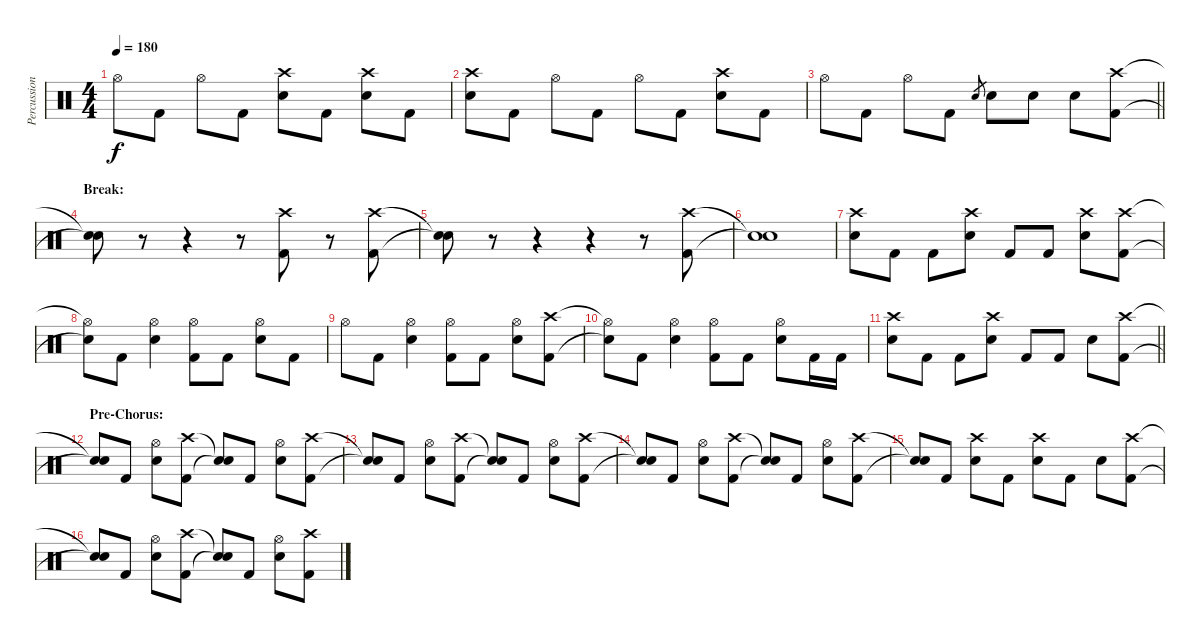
\track ("Percussion" "Percussion") {instrument percussion}
\staff {score}
\articulation defaults
\ts (4 4)
\tempo 180
\clef neutral
\ks c "Hi-Hat (open)".8{dy f} "Kick (hit) 2".8 "Hi-Hat (open)".8 "Kick (hit) 2".8
("Crash high (hit)" "Electric Snare (hit)").8 "Kick (hit) 2".8 ("Crash high (hit)" "Electric Snare (hit)").8 "Kick (hit) 2".8 |
("Crash high (hit)" "Electric Snare (hit)").8 "Kick (hit) 2".8 "Hi-Hat (open)".8 "Kick (hit) 2".8 "Hi-Hat (open)".8 "Kick (hit) 2".8 ("Crash high (hit)" "Electric Snare (hit)").8 "Kick (hit) 2".8 |
\barLineRight lightlight "Hi-Hat (open)".8 "Kick (hit) 2".8 "Hi-Hat (open)".8 "Kick (hit) 2".8 "Electric Snare (hit)".8{gr} "Electric Snare (hit)".8 "Electric Snare (hit)".8 "Electric Snare (hit)".8
("Crash high (hit)" "Kick (hit) 2").8 |
\section ("" "Break:")
("Snare (hit)"{t} "Snare (hit)"{t}).8 r.8 r.4 r.8 ("Crash high (hit)" "Kick (hit) 2").8 r.8 ("Crash high (hit)" "Kick (hit) 2").8 |
("Snare (hit)"{t} "Snare (hit)"{t}).8 r.8 r.4 r.4 r.8 ("Crash high (hit)" "Kick (hit) 2").8 |
("Snare (hit)"{t} "Snare (hit)"{t}).1 |
("Crash high (hit)" "Electric Snare (hit)").8 "Kick (hit) 2".8 "Kick (hit) 2".8 ("Crash high (hit)" "Electric Snare (hit)").8 "Kick (hit) 2".8 "Kick (hit) 2".8 ("Crash high (hit)" "Electric Snare (hit)").8 ("Crash high (hit)" "Kick (hit) 2").8 |
("Hi-Hat (open)"{t} "Snare (hit)"{t}).8 "Kick (hit) 2".8 ("Hi-Hat (open)" "Electric Snare (hit)").4 ("Hi-Hat (open)" "Kick (hit) 2").8 "Kick (hit) 2".8 ("Hi-Hat (open)" "Electric Snare (hit)").8 "Kick (hit) 2".8 |
"Hi-Hat (open)".8 "Kick (hit) 2".8 ("Hi-Hat (open)" "Electric Snare (hit)").4 ("Hi-Hat (open)" "Kick (hit) 2").8 "Kick (hit) 2".8 ("Hi-Hat (open)" "Electric Snare (hit)").8 ("Crash high (hit)" "Kick (hit) 2").8 |
("Hi-Hat (open)"{t} "Snare (hit)"{t}).8 "Kick (hit) 2".8 ("Hi-Hat (open)" "Electric Snare (hit)").4 ("Hi-Hat (open)" "Kick (hit) 2").8 "Kick (hit) 2".8 ("Hi-Hat (open)" "Electric Snare (hit)").8 "Kick (hit) 2".16 "Kick (hit) 2".16 |
\barLineRight lightlight
("Crash high (hit)" "Electric Snare (hit)").8 "Kick (hit) 2".8 "Kick (hit) 2".8 ("Crash high (hit)" "Electric Snare (hit)").8 "Kick (hit) 2".8 "Kick (hit) 2".8 "Electric Snare (hit)".8 ("Crash high (hit)" "Kick (hit) 2").8 |
\section ("" "Pre-Chorus:")
("Snare (hit)"{t} "Snare (hit)"{t}).8 "Kick (hit) 2".8 ("Hi-Hat (open)" "Electric Snare (hit)").8 ("Crash high (hit)" "Kick (hit) 2").8 ("Snare (hit)"{t} "Snare (hit)"{t}).8 "Kick (hit) 2".8 ("Hi-Hat (open)" "Electric Snare (hit)").8 ("Crash high (hit)" "Kick (hit) 2").8 |
("Snare (hit)"{t} "Snare (hit)"{t}).8 "Kick (hit) 2".8 ("Hi-Hat (open)" "Electric Snare (hit)").8 ("Crash high (hit)" "Kick (hit) 2").8 ("Snare (hit)"{t} "Snare (hit)"{t}).8 "Kick (hit) 2".8 ("Hi-Hat (open)" "Electric Snare (hit)").8 ("Crash high (hit)" "Kick (hit) 2").8 |
("Snare (hit)"{t} "Snare (hit)"{t}).8 "Kick (hit) 2".8 ("Hi-Hat (open)" "Electric Snare (hit)").8 ("Crash high (hit)" "Kick (hit) 2").8 ("Snare (hit)"{t} "Snare (hit)"{t}).8 "Kick (hit) 2".8 ("Hi-Hat (open)" "Electric Snare (hit)").8 ("Crash high (hit)" "Kick (hit) 2").8 |
("Snare (hit)"{t} "Snare (hit)"{t}).8 "Kick (hit) 2".8 ("Crash high (hit)" "Electric Snare (hit)").8 "Kick (hit) 2".8 ("Crash high (hit)" "Electric Snare (hit)").8 "Kick (hit) 2".8 "Electric Snare (hit)".8 ("Crash high (hit)" "Kick (hit) 2").8 |
("Snare (hit)"{t} "Snare (hit)"{t}).8 "Kick (hit) 2".8 ("Hi-Hat (open)" "Electric Snare (hit)").8 ("Crash high (hit)" "Kick (hit) 2").8 ("Snare (hit)"{t} "Snare (hit)"{t}).8 "Kick (hit) 2".8 ("Hi-Hat (open)" "Electric Snare (hit)").8 ("Crash high (hit)" "Kick (hit) 2").8
